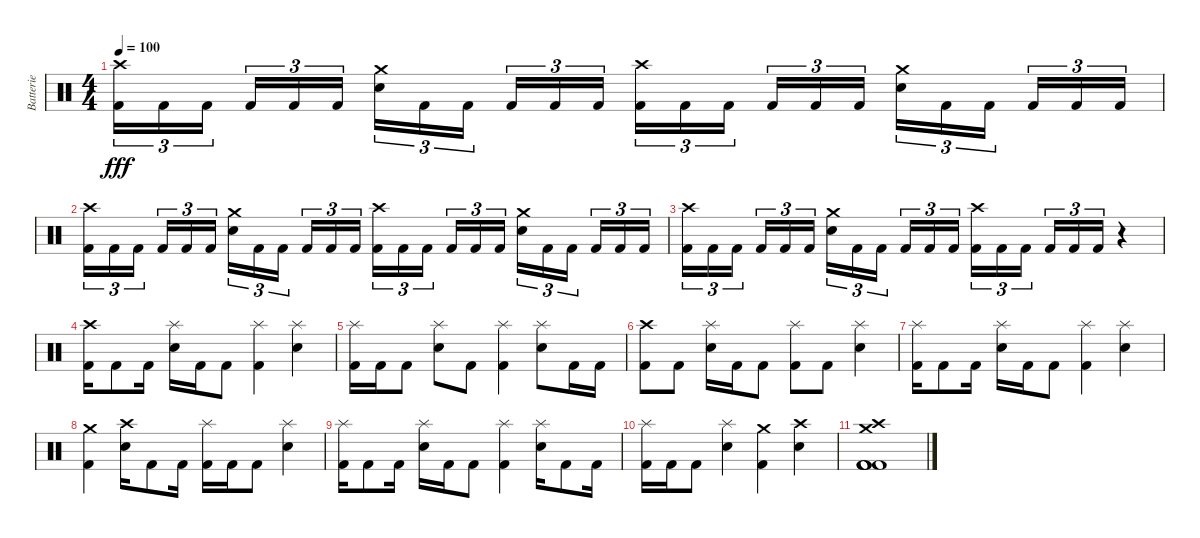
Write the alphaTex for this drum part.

\track ("Batterie" "Batterie") {instrument percussion}
\staff {score}
\articulation defaults
\ts (4 4)
\tempo 100
\clef neutral
\ks c
("Crash high (hit)" "Kick (hit) 2").16{tu (3 2) dy fff} "Kick (hit) 2".16{tu (3 2)} "Kick (hit) 2".16{tu (3 2) beam splitsecondary} "Kick (hit) 2".16{tu (3 2)} "Kick (hit) 2".16{tu (3 2)} "Kick (hit) 2".16{tu (3 2)} ("Crash medium (hit)" "Electric Snare (hit)").16{tu (3 2)} "Kick (hit) 2".16{tu (3 2)} "Kick (hit) 2".16{tu (3 2) beam splitsecondary} "Kick (hit) 2".16{tu (3 2)} "Kick (hit) 2".16{tu (3 2)} "Kick (hit) 2".16{tu (3 2)} ("Crash high (hit)" "Kick (hit) 2").16{tu (3 2)} "Kick (hit) 2".16{tu (3 2)} "Kick (hit) 2".16{tu (3 2) beam splitsecondary} "Kick (hit) 2".16{tu (3 2)} "Kick (hit) 2".16{tu (3 2)} "Kick (hit) 2".16{tu (3 2)} ("Crash medium (hit)" "Electric Snare (hit)").16{tu (3 2)} "Kick (hit) 2".16{tu (3 2)} "Kick (hit) 2".16{tu (3 2) beam splitsecondary} "Kick (hit) 2".16{tu (3 2)} "Kick (hit) 2".16{tu (3 2)} "Kick (hit) 2".16{tu (3 2)} |
("Crash high (hit)" "Kick (hit) 2").16{tu (3 2)} "Kick (hit) 2".16{tu (3 2)} "Kick (hit) 2".16{tu (3 2) beam splitsecondary} "Kick (hit) 2".16{tu (3 2)} "Kick (hit) 2".16{tu (3 2)} "Kick (hit) 2".16{tu (3 2)} ("Crash medium (hit)" "Electric Snare (hit)").16{tu (3 2)} "Kick (hit) 2".16{tu (3 2)} "Kick (hit) 2".16{tu (3 2) beam splitsecondary} "Kick (hit) 2".16{tu (3 2)} "Kick (hit) 2".16{tu (3 2)} "Kick (hit) 2".16{tu (3 2)} ("Crash high (hit)" "Kick (hit) 2").16{tu (3 2)} "Kick (hit) 2".16{tu (3 2)} "Kick (hit) 2".16{tu (3 2) beam splitsecondary} "Kick (hit) 2".16{tu (3 2)} "Kick (hit) 2".16{tu (3 2)} "Kick (hit) 2".16{tu (3 2)} ("Crash medium (hit)" "Electric Snare (hit)").16{tu (3 2)} "Kick (hit) 2".16{tu (3 2)} "Kick (hit) 2".16{tu (3 2) beam splitsecondary} "Kick (hit) 2".16{tu (3 2)} "Kick (hit) 2".16{tu (3 2)} "Kick (hit) 2".16{tu (3 2)} |
("Crash high (hit)" "Kick (hit) 2").16{tu (3 2)} "Kick (hit) 2".16{tu (3 2)} "Kick (hit) 2".16{tu (3 2) beam splitsecondary} "Kick (hit) 2".16{tu (3 2)} "Kick (hit) 2".16{tu (3 2)} "Kick (hit) 2".16{tu (3 2)} ("Crash medium (hit)" "Electric Snare (hit)").16{tu (3 2)} "Kick (hit) 2".16{tu (3 2)} "Kick (hit) 2".16{tu (3 2) beam splitsecondary} "Kick (hit) 2".16{tu (3 2)} "Kick (hit) 2".16{tu (3 2)} "Kick (hit) 2".16{tu (3 2)} ("Crash high (hit)" "Kick (hit) 2").16{tu (3 2)} "Kick (hit) 2".16{tu (3 2)} "Kick (hit) 2".16{tu (3 2) beam splitsecondary} "Kick (hit) 2".16{tu (3 2)} "Kick (hit) 2".16{tu (3 2)} "Kick (hit) 2".16{tu (3 2)} r.4 |
("Crash high (hit)" "Kick (hit) 2").16 "Kick (hit) 2".8 "Kick (hit) 2".16 ("Splash (hit)" "Electric Snare (hit)").16 "Kick (hit) 2".16 "Kick (hit) 2".8 ("Splash (hit)" "Kick (hit) 2").4 ("Splash (hit)" "Electric Snare (hit)").4 |
("Splash (hit)" "Kick (hit) 2").16 "Kick (hit) 2".16 "Kick (hit) 2".8 ("Splash (hit)" "Electric Snare (hit)").8 "Kick (hit) 2".8 ("Splash (hit)" "Kick (hit) 2").4 ("Splash (hit)" "Electric Snare (hit)").8 "Kick (hit) 2".16 "Kick (hit) 2".16 |
("Crash high (hit)" "Kick (hit) 2").8 "Kick (hit) 2".8 ("Splash (hit)" "Electric Snare (hit)").16 "Kick (hit) 2".16 "Kick (hit) 2".8 ("Splash (hit)" "Kick (hit) 2").8 "Kick (hit) 2".8 ("Splash (hit)" "Electric Snare (hit)").4 |
("Splash (hit)" "Kick (hit) 2").16 "Kick (hit) 2".8 "Kick (hit) 2".16 ("Splash (hit)" "Electric Snare (hit)").16 "Kick (hit) 2".16 "Kick (hit) 2".8 ("Splash (hit)" "Kick (hit) 2").4 ("Splash (hit)" "Electric Snare (hit)").4 |
("Crash medium (hit)" "Kick (hit) 2").4 ("Crash high (hit)" "Electric Snare (hit)").16 "Kick (hit) 2".8 "Kick (hit) 2".16 ("Splash (hit)" "Kick (hit) 2").16 "Kick (hit) 2".16 "Kick (hit) 2".8 ("Splash (hit)" "Electric Snare (hit)").4 |
("Splash (hit)" "Kick (hit) 2").16 "Kick (hit) 2".8 "Kick (hit) 2".16 ("Splash (hit)" "Electric Snare (hit)").16 "Kick (hit) 2".16 "Kick (hit) 2".8 ("Splash (hit)" "Kick (hit) 2").4 ("Splash (hit)" "Electric Snare (hit)").16 "Kick (hit) 2".8 "Kick (hit) 2".16 |
("Splash (hit)" "Kick (hit) 2").16 "Kick (hit) 2".16 "Kick (hit) 2".8 ("Splash (hit)" "Electric Snare (hit)").4 ("Crash medium (hit)" "Kick (hit) 2").4 ("Crash high (hit)" "Electric Snare (hit)").4 |
("Crash high (hit)" "Crash medium (hit)" "Kick (hit) 2" "Kick (hit) 2" "Kick (hit) 2" "Kick (hit) 2").1
